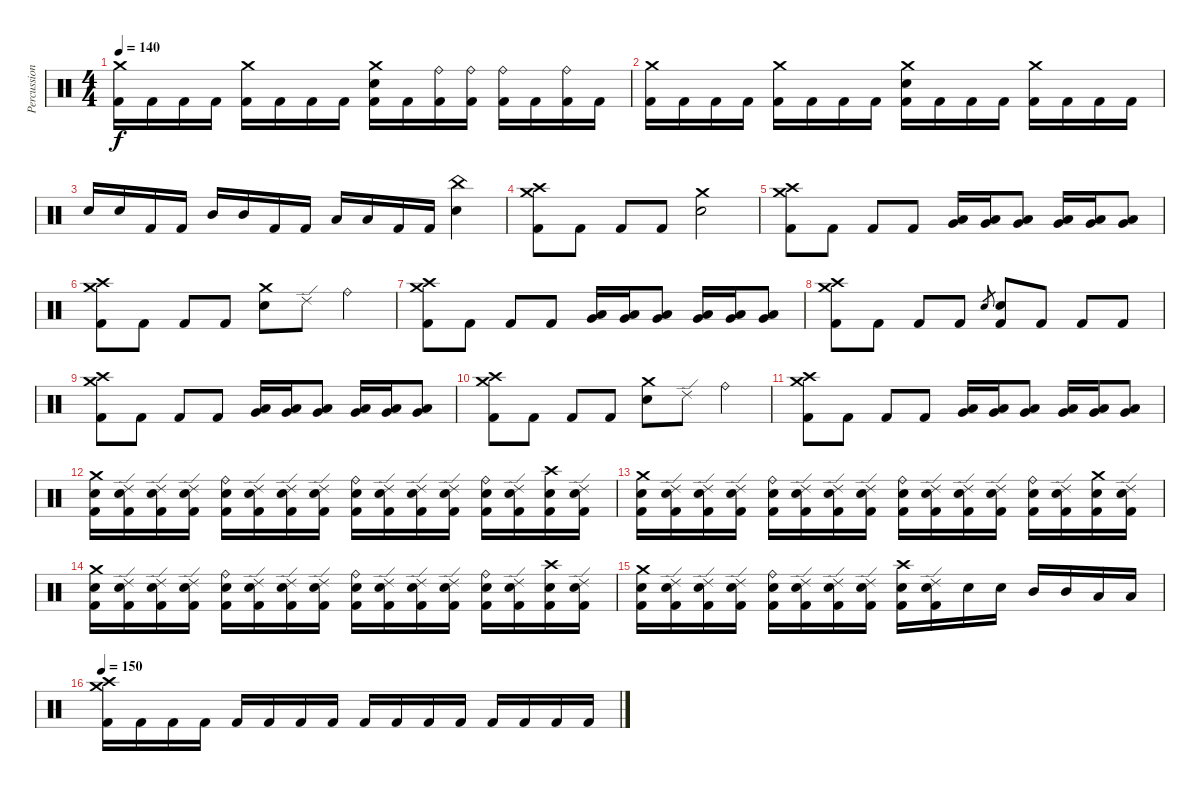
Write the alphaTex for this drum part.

\track ("Percussion" "Percussion") {instrument percussion}
\staff {score}
\articulation defaults
\ts (4 4)
\tempo 140
\clef neutral
\ks c
("Crash medium (hit)" "Kick (hit) 2").16{dy f} "Kick (hit) 2".16 "Kick (hit) 2".16 "Kick (hit) 2".16 ("Crash medium (hit)" "Kick (hit) 2").16 "Kick (hit) 2".16 "Kick (hit) 2".16 "Kick (hit) 2".16 ("Crash medium (hit)" "Electric Snare (hit)" "Kick (hit) 2").16 "Kick (hit) 2".16 ("Ride (bell)" "Kick (hit) 2").16 ("Ride (bell)" "Kick (hit) 2").16 ("Ride (bell)" "Kick (hit) 2").16 "Kick (hit) 2".16 ("Ride (bell)" "Kick (hit) 2").16 "Kick (hit) 2".16 |
("Crash medium (hit)" "Kick (hit) 2").16 "Kick (hit) 2".16 "Kick (hit) 2".16 "Kick (hit) 2".16 ("Crash medium (hit)" "Kick (hit) 2").16 "Kick (hit) 2".16 "Kick (hit) 2".16 "Kick (hit) 2".16 ("Crash medium (hit)" "Electric Snare (hit)" "Kick (hit) 2").16 "Kick (hit) 2".16 "Kick (hit) 2".16 "Kick (hit) 2".16 ("Crash medium (hit)" "Kick (hit) 2").16 "Kick (hit) 2".16 "Kick (hit) 2".16 "Kick (hit) 2".16 |
"Electric Snare (hit)".16 "Electric Snare (hit)".16 "Kick (hit) 2".16 "Kick (hit) 2".16 "Mid Tom (hit)".16 "Mid Tom (hit)".16 "Kick (hit) 2".16 "Kick (hit) 2".16 "Low Tom (hit)".16 "Low Tom (hit)".16 "Kick (hit) 2".16 "Kick (hit) 2".16 ("China (hit)" "Electric Snare (hit)").4 |
("Crash medium (hit)" "Crash high (hit)" "Kick (hit) 2").8 "Kick (hit) 2".8 "Kick (hit) 2".8 "Kick (hit) 2".8 ("Crash medium (hit)" "Electric Snare (hit)").2 |
("Crash medium (hit)" "Crash high (hit)" "Kick (hit) 2").8 "Kick (hit) 2".8 "Kick (hit) 2".8 "Kick (hit) 2".8 ("Very Low Tom (hit)" "Low Floor Tom (hit)").16 ("Very Low Tom (hit)" "Low Floor Tom (hit)").16 ("Very Low Tom (hit)" "Low Floor Tom (hit)").8 ("Very Low Tom (hit)" "Low Floor Tom (hit)").16 ("Very Low Tom (hit)" "Low Floor Tom (hit)").16 ("Very Low Tom (hit)" "Low Floor Tom (hit)").8 |
("Crash medium (hit)" "Crash high (hit)" "Kick (hit) 2").8 "Kick (hit) 2".8 "Kick (hit) 2".8 "Kick (hit) 2".8 ("Crash medium (hit)" "Electric Snare (hit)").8 "Ride (edge) 2".8 "Ride (bell)".4 |
("Crash medium (hit)" "Crash high (hit)" "Kick (hit) 2").8 "Kick (hit) 2".8 "Kick (hit) 2".8 "Kick (hit) 2".8 ("Very Low Tom (hit)" "Low Floor Tom (hit)").16 ("Very Low Tom (hit)" "Low Floor Tom (hit)").16 ("Very Low Tom (hit)" "Low Floor Tom (hit)").8 ("Very Low Tom (hit)" "Low Floor Tom (hit)").16 ("Very Low Tom (hit)" "Low Floor Tom (hit)").16 ("Very Low Tom (hit)" "Low Floor Tom (hit)").8 |
("Crash high (hit)" "Crash medium (hit)" "Kick (hit) 2").8 "Kick (hit) 2".8 "Kick (hit) 2".8 "Kick (hit) 2".8 "Electric Snare (hit)".8{gr} ("Electric Snare (hit)" "Kick (hit) 2").8 "Kick (hit) 2".8 "Kick (hit) 2".8 "Kick (hit) 2".8 |
("Crash medium (hit)" "Crash high (hit)" "Kick (hit) 2").8 "Kick (hit) 2".8 "Kick (hit) 2".8 "Kick (hit) 2".8 ("Very Low Tom (hit)" "Low Floor Tom (hit)").16 ("Very Low Tom (hit)" "Low Floor Tom (hit)").16 ("Very Low Tom (hit)" "Low Floor Tom (hit)").8 ("Very Low Tom (hit)" "Low Floor Tom (hit)").16 ("Very Low Tom (hit)" "Low Floor Tom (hit)").16 ("Very Low Tom (hit)" "Low Floor Tom (hit)").8 |
("Crash medium (hit)" "Crash high (hit)" "Kick (hit) 2").8 "Kick (hit) 2".8 "Kick (hit) 2".8 "Kick (hit) 2".8 ("Crash medium (hit)" "Electric Snare (hit)").8 "Ride (edge) 2".8 "Ride (bell)".4 |
("Crash medium (hit)" "Crash high (hit)" "Kick (hit) 2").8 "Kick (hit) 2".8 "Kick (hit) 2".8 "Kick (hit) 2".8 ("Very Low Tom (hit)" "Low Floor Tom (hit)").16 ("Very Low Tom (hit)" "Low Floor Tom (hit)").16 ("Very Low Tom (hit)" "Low Floor Tom (hit)").8 ("Very Low Tom (hit)" "Low Floor Tom (hit)").16 ("Very Low Tom (hit)" "Low Floor Tom (hit)").16 ("Very Low Tom (hit)" "Low Floor Tom (hit)").8 |
("Crash medium (hit)" "Electric Snare (hit)" "Kick (hit) 2").16 ("Ride (edge) 2" "Electric Snare (hit)" "Kick (hit) 2").16 ("Ride (edge) 2" "Electric Snare (hit)" "Kick (hit) 2").16 ("Ride (edge) 2" "Electric Snare (hit)" "Kick (hit) 2").16 ("Ride (bell)" "Electric Snare (hit)" "Kick (hit) 2").16 ("Ride (edge) 2" "Electric Snare (hit)" "Kick (hit) 2").16 ("Ride (edge) 2" "Electric Snare (hit)" "Kick (hit) 2").16 ("Ride (edge) 2" "Electric Snare (hit)" "Kick (hit) 2").16 ("Ride (bell)" "Electric Snare (hit)" "Kick (hit) 2").16 ("Ride (edge) 2" "Electric Snare (hit)" "Kick (hit) 2").16 ("Ride (edge) 2" "Electric Snare (hit)" "Kick (hit) 2").16 ("Ride (edge) 2" "Electric Snare (hit)" "Kick (hit) 2").16 ("Ride (bell)" "Electric Snare (hit)" "Kick (hit) 2").16 ("Ride (edge) 2" "Electric Snare (hit)" "Kick (hit) 2").16 ("Crash high (hit)" "Electric Snare (hit)" "Kick (hit) 2").16 ("Ride (edge) 2" "Electric Snare (hit)" "Kick (hit) 2").16 |
("Crash medium (hit)" "Electric Snare (hit)" "Kick (hit) 2").16 ("Ride (edge) 2" "Electric Snare (hit)" "Kick (hit) 2").16 ("Ride (edge) 2" "Electric Snare (hit)" "Kick (hit) 2").16 ("Ride (edge) 2" "Electric Snare (hit)" "Kick (hit) 2").16 ("Ride (bell)" "Electric Snare (hit)" "Kick (hit) 2").16 ("Ride (edge) 2" "Electric Snare (hit)" "Kick (hit) 2").16 ("Ride (edge) 2" "Electric Snare (hit)" "Kick (hit) 2").16 ("Ride (edge) 2" "Electric Snare (hit)" "Kick (hit) 2").16 ("Ride (bell)" "Electric Snare (hit)" "Kick (hit) 2").16 ("Ride (edge) 2" "Electric Snare (hit)" "Kick (hit) 2").16 ("Ride (edge) 2" "Electric Snare (hit)" "Kick (hit) 2").16 ("Ride (edge) 2" "Electric Snare (hit)" "Kick (hit) 2").16 ("Ride (bell)" "Electric Snare (hit)" "Kick (hit) 2").16 ("Ride (edge) 2" "Electric Snare (hit)" "Kick (hit) 2").16 ("Crash medium (hit)" "Electric Snare (hit)" "Kick (hit) 2").16 ("Ride (edge) 2" "Electric Snare (hit)" "Kick (hit) 2").16 |
("Crash medium (hit)" "Electric Snare (hit)" "Kick (hit) 2").16 ("Ride (edge) 2" "Electric Snare (hit)" "Kick (hit) 2").16 ("Ride (edge) 2" "Electric Snare (hit)" "Kick (hit) 2").16 ("Ride (edge) 2" "Electric Snare (hit)" "Kick (hit) 2").16 ("Ride (bell)" "Electric Snare (hit)" "Kick (hit) 2").16 ("Ride (edge) 2" "Electric Snare (hit)" "Kick (hit) 2").16 ("Ride (edge) 2" "Electric Snare (hit)" "Kick (hit) 2").16 ("Ride (edge) 2" "Electric Snare (hit)" "Kick (hit) 2").16 ("Ride (bell)" "Electric Snare (hit)" "Kick (hit) 2").16 ("Ride (edge) 2" "Electric Snare (hit)" "Kick (hit) 2").16 ("Ride (edge) 2" "Electric Snare (hit)" "Kick (hit) 2").16 ("Ride (edge) 2" "Electric Snare (hit)" "Kick (hit) 2").16 ("Ride (bell)" "Electric Snare (hit)" "Kick (hit) 2").16 ("Ride (edge) 2" "Electric Snare (hit)" "Kick (hit) 2").16 ("Crash high (hit)" "Electric Snare (hit)" "Kick (hit) 2").16 ("Ride (edge) 2" "Electric Snare (hit)" "Kick (hit) 2").16 |
("Crash medium (hit)" "Electric Snare (hit)" "Kick (hit) 2").16 ("Ride (edge) 2" "Electric Snare (hit)" "Kick (hit) 2").16 ("Ride (edge) 2" "Electric Snare (hit)" "Kick (hit) 2").16 ("Ride (edge) 2" "Electric Snare (hit)" "Kick (hit) 2").16 ("Ride (bell)" "Electric Snare (hit)" "Kick (hit) 2").16 ("Ride (edge) 2" "Electric Snare (hit)" "Kick (hit) 2").16 ("Ride (edge) 2" "Electric Snare (hit)" "Kick (hit) 2").16 ("Ride (edge) 2" "Electric Snare (hit)" "Kick (hit) 2").16 ("Crash high (hit)" "Electric Snare (hit)" "Kick (hit) 2").16 ("Ride (edge) 2" "Electric Snare (hit)" "Kick (hit) 2").16 "Electric Snare (hit)".16 "Electric Snare (hit)".16 "Mid Tom (hit)".16 "Mid Tom (hit)".16 "Low Tom (hit)".16 "Low Tom (hit)".16 |
\tempo 150
("Crash medium (hit)" "Crash high (hit)" "Kick (hit) 2").16 "Kick (hit) 2".16 "Kick (hit) 2".16 "Kick (hit) 2".16 "Kick (hit) 2".16 "Kick (hit) 2".16 "Kick (hit) 2".16 "Kick (hit) 2".16 "Kick (hit) 2".16 "Kick (hit) 2".16 "Kick (hit) 2".16 "Kick (hit) 2".16 "Kick (hit) 2".16 "Kick (hit) 2".16 "Kick (hit) 2".16 "Kick (hit) 2".16
